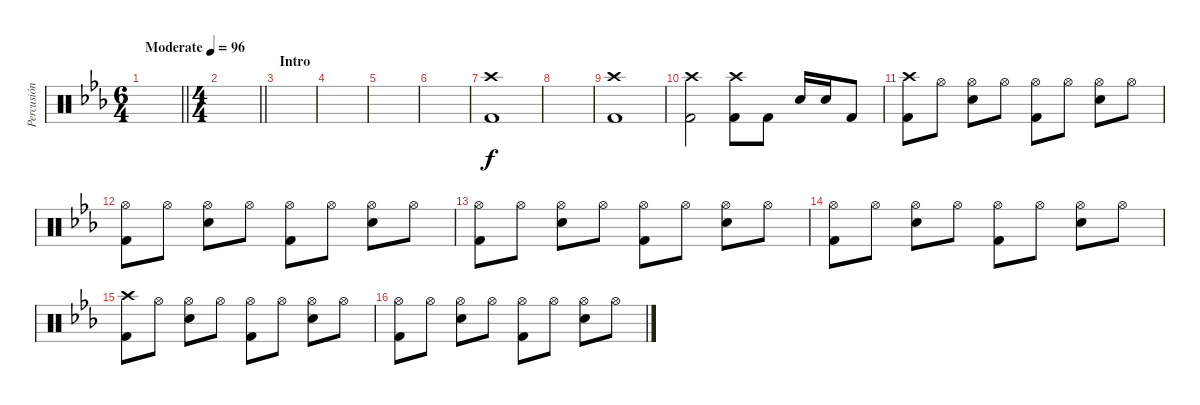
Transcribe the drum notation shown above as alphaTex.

\track ("Percusión" "Percusión") {instrument percussion}
\staff {score}
\articulation defaults
\ts (6 4)
\tempo (96 "Moderate")
\clef neutral
\barLineRight lightlight
\ks eb
|
\ts (4 4)
\barLineRight lightlight
|
\section ("" "Intro")
|
|
|
|
("Crash high (hit)" "Kick (hit) 2").1 |
|
("Crash high (hit)" "Kick (hit) 2").1 |
("Crash high (hit)" "Kick (hit) 2").2 ("Crash high (hit)" "Kick (hit) 2").8 "Kick (hit) 2".8 "Electric Snare (hit)".16 "Electric Snare (hit)".16 "Kick (hit) 2".8 |
("Crash high (hit)" "Kick (hit) 2").8 "Hi-Hat (open)".8 ("Hi-Hat (open)" "Electric Snare (hit)").8 "Hi-Hat (open)".8 ("Hi-Hat (open)" "Kick (hit) 2").8 "Hi-Hat (open)".8 ("Hi-Hat (open)" "Electric Snare (hit)").8 "Hi-Hat (open)".8 |
("Hi-Hat (open)" "Kick (hit) 2").8 "Hi-Hat (open)".8 ("Hi-Hat (open)" "Electric Snare (hit)").8 "Hi-Hat (open)".8 ("Hi-Hat (open)" "Kick (hit) 2").8 "Hi-Hat (open)".8 ("Hi-Hat (open)" "Electric Snare (hit)").8 "Hi-Hat (open)".8 |
("Hi-Hat (open)" "Kick (hit) 2").8 "Hi-Hat (open)".8 ("Hi-Hat (open)" "Electric Snare (hit)").8 "Hi-Hat (open)".8 ("Hi-Hat (open)" "Kick (hit) 2").8 "Hi-Hat (open)".8 ("Hi-Hat (open)" "Electric Snare (hit)").8 "Hi-Hat (open)".8 |
("Hi-Hat (open)" "Kick (hit) 2").8 "Hi-Hat (open)".8 ("Hi-Hat (open)" "Electric Snare (hit)").8 "Hi-Hat (open)".8 ("Hi-Hat (open)" "Kick (hit) 2").8 "Hi-Hat (open)".8 ("Hi-Hat (open)" "Electric Snare (hit)").8 "Hi-Hat (open)".8 |
("Crash high (hit)" "Kick (hit) 2").8 "Hi-Hat (open)".8 ("Hi-Hat (open)" "Electric Snare (hit)").8 "Hi-Hat (open)".8 ("Hi-Hat (open)" "Kick (hit) 2").8 "Hi-Hat (open)".8 ("Hi-Hat (open)" "Electric Snare (hit)").8 "Hi-Hat (open)".8 |
("Hi-Hat (open)" "Kick (hit) 2").8 "Hi-Hat (open)".8 ("Hi-Hat (open)" "Electric Snare (hit)").8 "Hi-Hat (open)".8 ("Hi-Hat (open)" "Kick (hit) 2").8 "Hi-Hat (open)".8 ("Hi-Hat (open)" "Electric Snare (hit)").8 "Hi-Hat (open)".8
